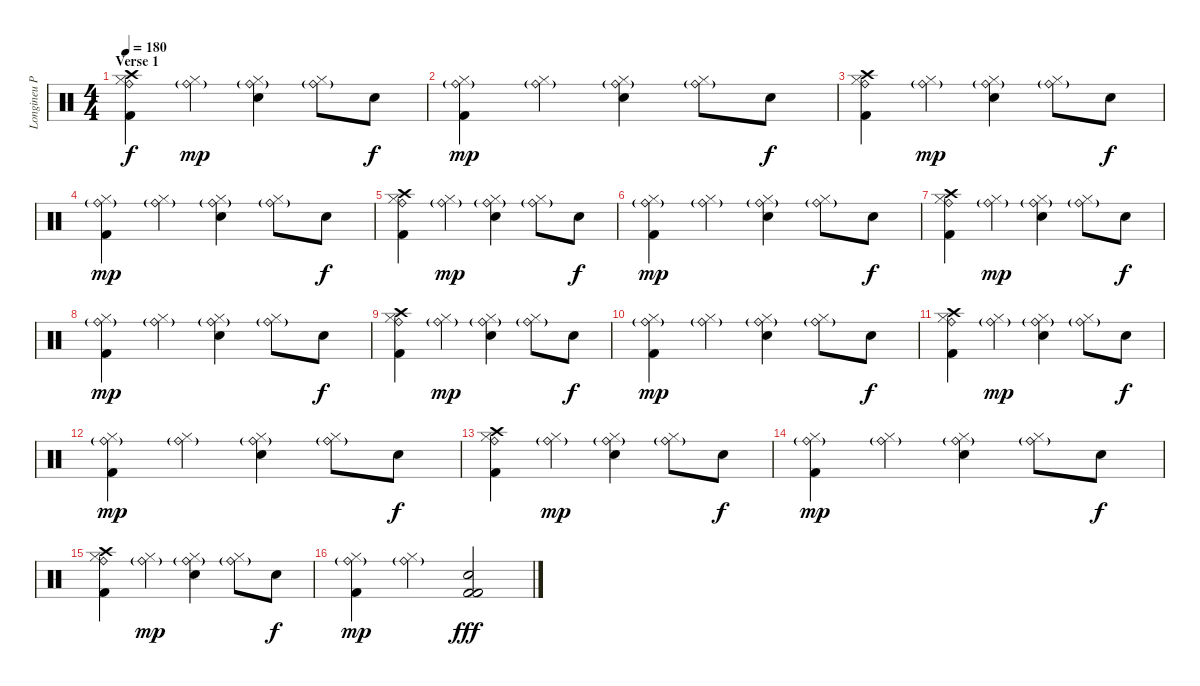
\track ("Longineu Parsons III (Drums)" "Longineu P") {instrument percussion}
\staff {score}
\articulation defaults
\ts (4 4)
\section ("" "Verse 1")
\tempo 180
\clef neutral
\ks c
("Ride (bell)" "Crash high (hit)" "Kick (hit) 2" "Hi-Hat (closed)").4{dy f} ("Ride (bell)"{g} "Hi-Hat (closed)").4{dy mp} ("Ride (bell)"{g} "Snare (hit) 2" "Hi-Hat (closed)").4 ("Ride (bell)"{g} "Hi-Hat (closed)").8 "Snare (hit) 2".8{dy f} |
("Ride (bell)"{g} "Kick (hit) 2" "Hi-Hat (closed)").4{dy mp} ("Ride (bell)"{g} "Hi-Hat (closed)").4 ("Ride (bell)"{g} "Snare (hit) 2" "Hi-Hat (closed)").4 ("Ride (bell)"{g} "Hi-Hat (closed)").8 "Snare (hit) 2".8{dy f} |
("Ride (bell)" "Crash high (hit)" "Kick (hit) 2" "Hi-Hat (closed)").4 ("Ride (bell)"{g} "Hi-Hat (closed)").4{dy mp} ("Ride (bell)"{g} "Snare (hit) 2" "Hi-Hat (closed)").4 ("Ride (bell)"{g} "Hi-Hat (closed)").8 "Snare (hit) 2".8{dy f} |
("Ride (bell)"{g} "Kick (hit) 2" "Hi-Hat (closed)").4{dy mp} ("Ride (bell)"{g} "Hi-Hat (closed)").4 ("Ride (bell)"{g} "Snare (hit) 2" "Hi-Hat (closed)").4 ("Ride (bell)"{g} "Hi-Hat (closed)").8 "Snare (hit) 2".8{dy f} |
("Ride (bell)" "Crash high (hit)" "Kick (hit) 2" "Hi-Hat (closed)").4 ("Ride (bell)"{g} "Hi-Hat (closed)").4{dy mp} ("Ride (bell)"{g} "Snare (hit) 2" "Hi-Hat (closed)").4 ("Ride (bell)"{g} "Hi-Hat (closed)").8 "Snare (hit) 2".8{dy f} |
("Ride (bell)"{g} "Kick (hit) 2" "Hi-Hat (closed)").4{dy mp} ("Ride (bell)"{g} "Hi-Hat (closed)").4 ("Ride (bell)"{g} "Snare (hit) 2" "Hi-Hat (closed)").4 ("Ride (bell)"{g} "Hi-Hat (closed)").8 "Snare (hit) 2".8{dy f} |
("Ride (bell)" "Crash high (hit)" "Kick (hit) 2" "Hi-Hat (closed)").4 ("Ride (bell)"{g} "Hi-Hat (closed)").4{dy mp} ("Ride (bell)"{g} "Snare (hit) 2" "Hi-Hat (closed)").4 ("Ride (bell)"{g} "Hi-Hat (closed)").8 "Snare (hit) 2".8{dy f} |
("Ride (bell)"{g} "Kick (hit) 2" "Hi-Hat (closed)").4{dy mp} ("Ride (bell)"{g} "Hi-Hat (closed)").4 ("Ride (bell)"{g} "Snare (hit) 2" "Hi-Hat (closed)").4 ("Ride (bell)"{g} "Hi-Hat (closed)").8 "Snare (hit) 2".8{dy f} |
("Ride (bell)" "Crash high (hit)" "Kick (hit) 2" "Hi-Hat (closed)").4 ("Ride (bell)"{g} "Hi-Hat (closed)").4{dy mp} ("Ride (bell)"{g} "Snare (hit) 2" "Hi-Hat (closed)").4 ("Ride (bell)"{g} "Hi-Hat (closed)").8 "Snare (hit) 2".8{dy f} |
("Ride (bell)"{g} "Kick (hit) 2" "Hi-Hat (closed)").4{dy mp} ("Ride (bell)"{g} "Hi-Hat (closed)").4 ("Ride (bell)"{g} "Snare (hit) 2" "Hi-Hat (closed)").4 ("Ride (bell)"{g} "Hi-Hat (closed)").8 "Snare (hit) 2".8{dy f} |
("Ride (bell)" "Crash high (hit)" "Kick (hit) 2" "Hi-Hat (closed)").4 ("Ride (bell)"{g} "Hi-Hat (closed)").4{dy mp} ("Ride (bell)"{g} "Snare (hit) 2" "Hi-Hat (closed)").4 ("Ride (bell)"{g} "Hi-Hat (closed)").8 "Snare (hit) 2".8{dy f} |
("Ride (bell)"{g} "Kick (hit) 2" "Hi-Hat (closed)").4{dy mp} ("Ride (bell)"{g} "Hi-Hat (closed)").4 ("Ride (bell)"{g} "Snare (hit) 2" "Hi-Hat (closed)").4 ("Ride (bell)"{g} "Hi-Hat (closed)").8 "Snare (hit) 2".8{dy f} |
("Ride (bell)" "Crash high (hit)" "Kick (hit) 2" "Hi-Hat (closed)").4 ("Ride (bell)"{g} "Hi-Hat (closed)").4{dy mp} ("Ride (bell)"{g} "Snare (hit) 2" "Hi-Hat (closed)").4 ("Ride (bell)"{g} "Hi-Hat (closed)").8 "Snare (hit) 2".8{dy f} |
("Ride (bell)"{g} "Kick (hit) 2" "Hi-Hat (closed)").4{dy mp} ("Ride (bell)"{g} "Hi-Hat (closed)").4 ("Ride (bell)"{g} "Snare (hit) 2" "Hi-Hat (closed)").4 ("Ride (bell)"{g} "Hi-Hat (closed)").8 "Snare (hit) 2".8{dy f} |
("Ride (bell)" "Crash high (hit)" "Kick (hit) 2" "Hi-Hat (closed)").4 ("Ride (bell)"{g} "Hi-Hat (closed)").4{dy mp} ("Ride (bell)"{g} "Snare (hit) 2" "Hi-Hat (closed)").4 ("Ride (bell)"{g} "Hi-Hat (closed)").8 "Snare (hit) 2".8{dy f} |
("Ride (bell)"{g} "Kick (hit) 2" "Hi-Hat (closed)").4{dy mp} ("Ride (bell)"{g} "Hi-Hat (closed)").4 ("Kick (hit) 2" "Snare (hit) 2" "Kick (hit) 2").2{dy fff}
